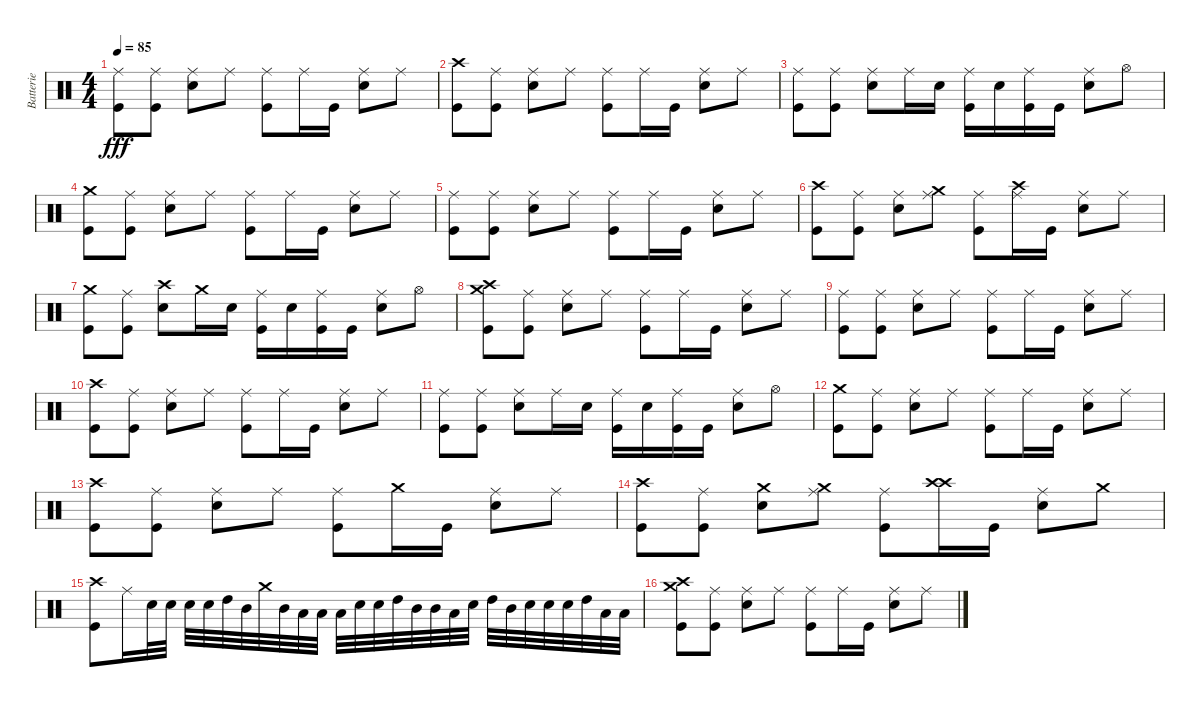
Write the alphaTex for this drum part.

\track ("Batterie" "Batterie") {instrument percussion}
\staff {score}
\articulation defaults
\ts (4 4)
\tempo 85
\clef neutral
\ks c
("Ride (middle)" "Kick (hit)").8{dy fff} ("Ride (middle)" "Kick (hit)").8 ("Ride (middle)" "Electric Snare (hit)").8 "Ride (middle)".8 ("Ride (middle)" "Kick (hit)").8 "Ride (middle)".16 "Kick (hit)".16 ("Ride (middle)" "Electric Snare (hit)").8 "Ride (middle)".8 |
("Crash high (hit)" "Kick (hit)").8 ("Ride (middle)" "Kick (hit)").8 ("Ride (middle)" "Electric Snare (hit)").8 "Ride (middle)".8 ("Ride (middle)" "Kick (hit)").8 "Ride (middle)".16 "Kick (hit)".16 ("Ride (middle)" "Electric Snare (hit)").8 "Ride (middle)".8 |
("Ride (middle)" "Kick (hit)").8 ("Ride (middle)" "Kick (hit)").8 ("Ride (middle)" "Electric Snare (hit)").8 "Ride (middle)".16 "Electric Snare (hit)".16 ("Ride (middle)" "Kick (hit)").16 "Electric Snare (hit)".16 ("Ride (middle)" "Kick (hit)").16 "Kick (hit)".16 ("Ride (middle)" "Electric Snare (hit)").8 "Hi-Hat (open)".8 |
("Crash medium (hit)" "Kick (hit)").8 ("Ride (middle)" "Kick (hit)").8 ("Ride (middle)" "Electric Snare (hit)").8 "Ride (middle)".8 ("Ride (middle)" "Kick (hit)").8 "Ride (middle)".16 "Kick (hit)".16 ("Ride (middle)" "Electric Snare (hit)").8 "Ride (middle)".8 |
("Ride (middle)" "Kick (hit)").8 ("Ride (middle)" "Kick (hit)").8 ("Ride (middle)" "Electric Snare (hit)").8 "Ride (middle)".8 ("Ride (middle)" "Kick (hit)").8 "Ride (middle)".16 "Kick (hit)".16 ("Ride (middle)" "Electric Snare (hit)").8 "Ride (middle)".8 |
("Crash high (hit)" "Kick (hit)").8 ("Ride (middle)" "Kick (hit)").8 ("Ride (middle)" "Electric Snare (hit)").8 ("Ride (middle)" "Crash medium (hit)").8 ("Ride (middle)" "Kick (hit)").8 ("Ride (middle)" "Crash high (hit)").16 "Kick (hit)".16 ("Ride (middle)" "Electric Snare (hit)").8 "Ride (middle)".8 |
("Crash medium (hit)" "Kick (hit)").8 ("Ride (middle)" "Kick (hit)").8 ("Crash high (hit)" "Electric Snare (hit)").8 "Crash medium (hit)".16 "Electric Snare (hit)".16 ("Ride (middle)" "Kick (hit)").16 "Electric Snare (hit)".16 ("Ride (middle)" "Kick (hit)").16 "Kick (hit)".16 ("Ride (middle)" "Electric Snare (hit)").8 "Hi-Hat (open)".8 |
("Crash high (hit)" "Kick (hit)" "Crash medium (hit)").8 ("Ride (middle)" "Kick (hit)").8 ("Ride (middle)" "Electric Snare (hit)").8 "Ride (middle)".8 ("Ride (middle)" "Kick (hit)").8 "Ride (middle)".16 "Kick (hit)".16 ("Ride (middle)" "Electric Snare (hit)").8 "Ride (middle)".8 |
("Ride (middle)" "Kick (hit)").8 ("Ride (middle)" "Kick (hit)").8 ("Ride (middle)" "Electric Snare (hit)").8 "Ride (middle)".8 ("Ride (middle)" "Kick (hit)").8 "Ride (middle)".16 "Kick (hit)".16 ("Ride (middle)" "Electric Snare (hit)").8 "Ride (middle)".8 |
("Crash high (hit)" "Kick (hit)").8 ("Ride (middle)" "Kick (hit)").8 ("Ride (middle)" "Electric Snare (hit)").8 "Ride (middle)".8 ("Ride (middle)" "Kick (hit)").8 "Ride (middle)".16 "Kick (hit)".16 ("Ride (middle)" "Electric Snare (hit)").8 "Ride (middle)".8 |
("Ride (middle)" "Kick (hit)").8 ("Ride (middle)" "Kick (hit)").8 ("Ride (middle)" "Electric Snare (hit)").8 "Ride (middle)".16 "Electric Snare (hit)".16 ("Ride (middle)" "Kick (hit)").16 "Electric Snare (hit)".16 ("Ride (middle)" "Kick (hit)").16 "Kick (hit)".16 ("Ride (middle)" "Electric Snare (hit)").8 "Hi-Hat (open)".8 |
("Crash medium (hit)" "Kick (hit)").8 ("Ride (middle)" "Kick (hit)").8 ("Ride (middle)" "Electric Snare (hit)").8 "Ride (middle)".8 ("Ride (middle)" "Kick (hit)").8 "Ride (middle)".16 "Kick (hit)".16 ("Ride (middle)" "Electric Snare (hit)").8 "Ride (middle)".8 |
("Crash high (hit)" "Kick (hit)").8 ("Ride (middle)" "Kick (hit)").8 ("Ride (middle)" "Electric Snare (hit)").8 "Ride (middle)".8 ("Ride (middle)" "Kick (hit)").8 "Crash medium (hit)".16 "Kick (hit)".16 ("Ride (middle)" "Electric Snare (hit)").8 "Ride (middle)".8 |
("Crash high (hit)" "Kick (hit)").8 ("Ride (middle)" "Kick (hit)").8 ("Crash medium (hit)" "Electric Snare (hit)").8 ("Ride (middle)" "Crash medium (hit)").8 ("Ride (middle)" "Kick (hit)").8 ("Crash high (hit)" "Crash high (hit)").16 "Kick (hit)".16 ("Ride (middle)" "Electric Snare (hit)").8 "Crash medium (hit)".8 |
("Crash high (hit)" "Kick (hit)").8 "Ride (middle)".16 "Electric Snare (hit)".32 "Electric Snare (hit)".32 "Electric Snare (hit)".32 "Electric Snare (hit)".32 "High Tom (hit)".32 "Mid Tom (hit)".32 "Crash medium (hit)".32 "Mid Tom (hit)".32 "Low Floor Tom (hit)".32 "Low Floor Tom (hit)".32 "Low Floor Tom (hit)".32 "Electric Snare (hit)".32 "Electric Snare (hit)".32 "High Tom (hit)".32 "Mid Tom (hit)".32 "Mid Tom (hit)".32 "Low Floor Tom (hit)".32 "Electric Snare (hit)".32 "High Tom (hit)".32 "Mid Tom (hit)".32 "Electric Snare (hit)".32 "Electric Snare (hit)".32 "Electric Snare (hit)".32 "High Tom (hit)".32 "Low Floor Tom (hit)".32 "Low Floor Tom (hit)".32 |
("Crash high (hit)" "Kick (hit)" "Crash medium (hit)").8 ("Ride (middle)" "Kick (hit)").8 ("Ride (middle)" "Electric Snare (hit)").8 "Ride (middle)".8 ("Ride (middle)" "Kick (hit)").8 "Ride (middle)".16 "Kick (hit)".16 ("Ride (middle)" "Electric Snare (hit)").8 "Ride (middle)".8
